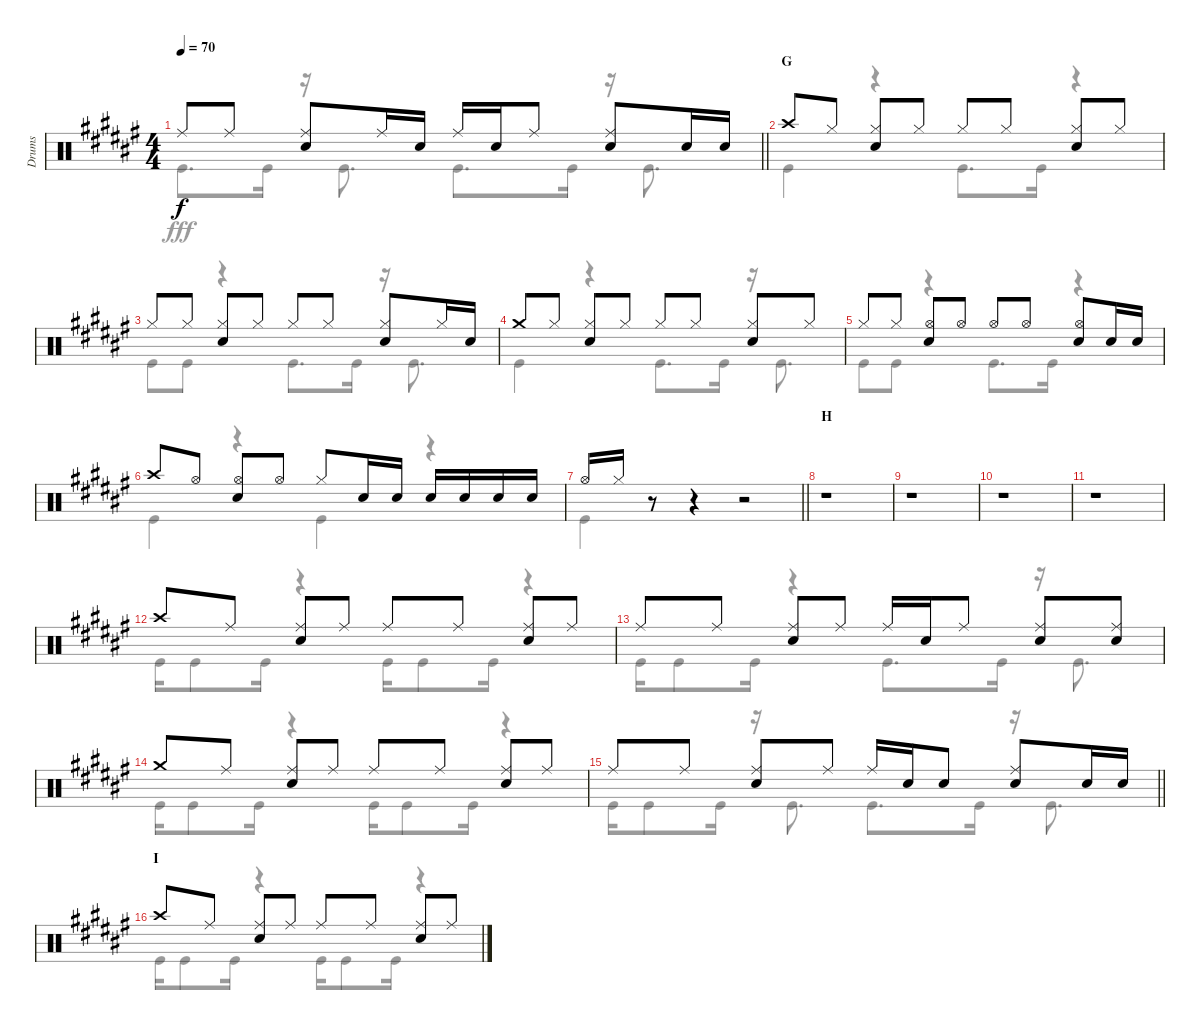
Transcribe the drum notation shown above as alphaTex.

\track ("Drums" "Drums") {instrument percussion}
\staff {score}
\articulation defaults
\voice
\ts (4 4)
\tempo 70
\clef neutral
\barLineRight lightlight
\ks f# "Ride (middle)".8{dy f} "Ride (middle)".8
("Ride (middle)" "Snare (hit) 2").8 "Ride (middle)".16 "Snare (hit) 2".16 "Ride (middle)".16 "Snare (hit) 2".16 "Ride (middle)".8 ("Ride (middle)" "Snare (hit) 2").8 "Snare (hit) 2".16 "Snare (hit) 2".16 |
\section ("" "G")
"Crash high (hit)".8 "Hi-Hat (closed)".8 ("Hi-Hat (closed)" "Snare (hit) 2").8 "Hi-Hat (closed)".8 "Hi-Hat (closed)".8 "Hi-Hat (closed)".8 ("Hi-Hat (closed)" "Snare (hit) 2").8 "Hi-Hat (closed)".8 |
"Hi-Hat (closed)".8 "Hi-Hat (closed)".8 ("Hi-Hat (closed)" "Snare (hit) 2").8 "Hi-Hat (closed)".8 "Hi-Hat (closed)".8 "Hi-Hat (closed)".8 ("Hi-Hat (closed)" "Snare (hit) 2").8 "Hi-Hat (closed)".16 "Snare (hit) 2".16 |
"Crash medium (hit)".8 "Hi-Hat (closed)".8 ("Hi-Hat (closed)" "Snare (hit) 2").8 "Hi-Hat (closed)".8 "Hi-Hat (closed)".8 "Hi-Hat (closed)".8 ("Hi-Hat (closed)" "Snare (hit) 2").8 "Hi-Hat (closed)".8 |
"Hi-Hat (closed)".8 "Hi-Hat (closed)".8 ("Hi-Hat (open)" "Snare (hit) 2").8 "Hi-Hat (open)".8 "Hi-Hat (open)".8 "Hi-Hat (open)".8 ("Hi-Hat (open)" "Snare (hit) 2").8 "Snare (hit) 2".16 "Snare (hit) 2".16 |
"Crash high (hit)".8 "Hi-Hat (open)".8 ("Hi-Hat (open)" "Snare (hit) 2").8 "Hi-Hat (open)".8 "Hi-Hat (closed)".8 "Snare (hit) 2".16 "Snare (hit) 2".16 "Snare (hit) 2".16 "Snare (hit) 2".16 "Snare (hit) 2".16 "Snare (hit) 2".16 |
\barLineRight lightlight "Hi-Hat (open)".16 "Hi-Hat (closed)".16
r.8 r.4 r.2 |
\section ("" "H")
r.1 |
r.1 |
r.1 |
r.1 |
"Crash high (hit)".8 "Ride (middle)".8 ("Ride (middle)" "Snare (hit) 2").8 "Ride (middle)".8 "Ride (middle)".8 "Ride (middle)".8 ("Ride (middle)" "Snare (hit) 2").8 "Ride (middle)".8 |
"Ride (middle)".8 "Ride (middle)".8 ("Ride (middle)" "Snare (hit) 2").8 "Ride (middle)".8 "Ride (middle)".16 "Snare (hit) 2".16 "Ride (middle)".8 ("Ride (middle)" "Snare (hit) 2").8 ("Ride (middle)" "Snare (hit) 2").8 |
"Crash medium (hit)".8 "Ride (middle)".8 ("Ride (middle)" "Snare (hit) 2").8 "Ride (middle)".8 "Ride (middle)".8 "Ride (middle)".8 ("Ride (middle)" "Snare (hit) 2").8 "Ride (middle)".8 |
\barLineRight lightlight "Ride (middle)".8 "Ride (middle)".8
("Ride (middle)" "Snare (hit) 2").8 "Ride (middle)".8 "Ride (middle)".16 "Snare (hit) 2".16 "Snare (hit) 2".8 ("Ride (middle)" "Snare (hit) 2").8 "Snare (hit) 2".16 "Snare (hit) 2".16 |
\section ("" "I")
"Crash high (hit)".8 "Ride (middle)".8 ("Ride (middle)" "Snare (hit) 2").8 "Ride (middle)".8 "Ride (middle)".8 "Ride (middle)".8 ("Ride (middle)" "Snare (hit) 2").8 "Ride (middle)".8
\voice
\clef neutral
\ottava regular
\simile none
\barLineRight lightlight
\ks f# "Kick (hit)".8{d dy fff} "Kick (hit)".16
r.16 "Kick (hit)".8{d} "Kick (hit)".8{d} "Kick (hit)".16 r.16 "Kick (hit)".8{d} |
"Kick (hit)".4 r.4 "Kick (hit)".8{d} "Kick (hit)".16 r.4 |
"Kick (hit)".8 "Kick (hit)".8 r.4 "Kick (hit)".8{d} "Kick (hit)".16 r.16 "Kick (hit)".8{d} |
"Kick (hit)".4 r.4 "Kick (hit)".8{d} "Kick (hit)".16 r.16 "Kick (hit)".8{d} |
"Kick (hit)".8 "Kick (hit)".8 r.4 "Kick (hit)".8{d} "Kick (hit)".16 r.4 |
"Kick (hit)".4 r.4 "Kick (hit)".4 r.4 |
\barLineRight lightlight "Kick (hit)".4
r.4 r.2 |
r.1 |
r.1 |
r.1 |
r.1 |
"Kick (hit)".16 "Kick (hit)".8 "Kick (hit)".16 r.4 "Kick (hit)".16 "Kick (hit)".8 "Kick (hit)".16 r.4 |
"Kick (hit)".16 "Kick (hit)".8 "Kick (hit)".16 r.4 "Kick (hit)".8{d} "Kick (hit)".16 r.16 "Kick (hit)".8{d} |
"Kick (hit)".16 "Kick (hit)".8 "Kick (hit)".16 r.4 "Kick (hit)".16 "Kick (hit)".8 "Kick (hit)".16 r.4 |
\barLineRight lightlight "Kick (hit)".16 "Kick (hit)".8 "Kick (hit)".16
r.16 "Kick (hit)".8{d} "Kick (hit)".8{d} "Kick (hit)".16 r.16 "Kick (hit)".8{d} |
"Kick (hit)".16 "Kick (hit)".8 "Kick (hit)".16 r.4 "Kick (hit)".16 "Kick (hit)".8 "Kick (hit)".16 r.4
